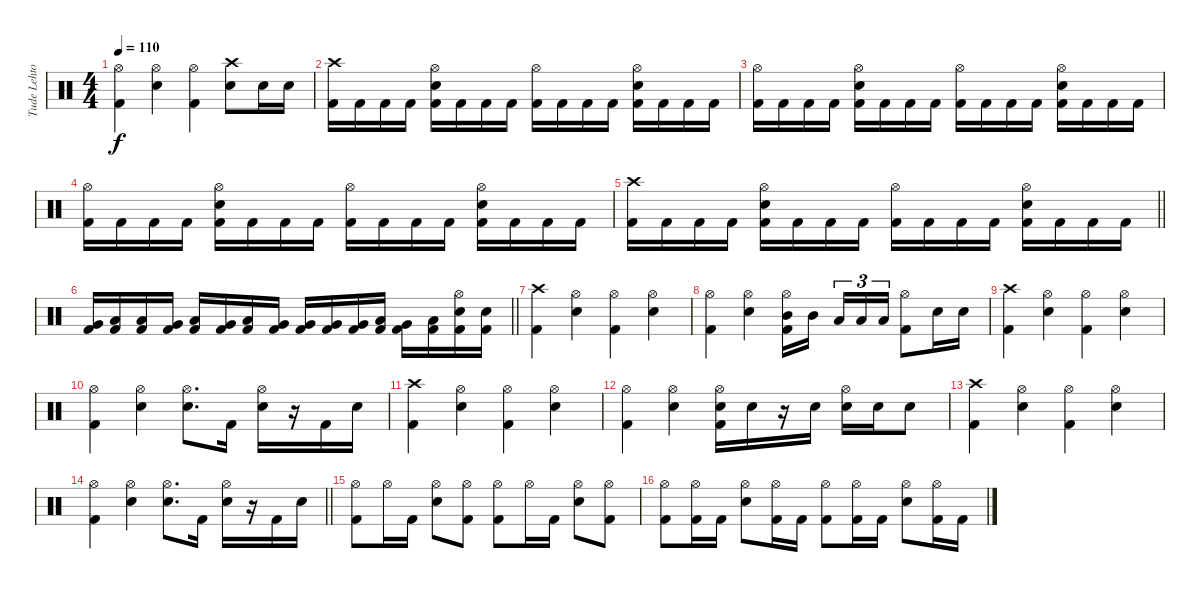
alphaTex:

\track ("Tude Lehtonen" "Tude Lehto") {instrument percussion}
\staff {score}
\articulation defaults
\ts (4 4)
\tempo 110
\clef neutral
\ks c
("Hi-Hat (open)" "Kick (hit) 2").4{dy f} ("Hi-Hat (open)" "Snare (hit) 2").4 ("Hi-Hat (open)" "Kick (hit) 2").4 ("Crash high (hit)" "Snare (hit) 2").8 "Snare (hit) 2".16 "Snare (hit) 2".16 |
("Crash high (hit)" "Kick (hit) 2").16 "Kick (hit) 2".16 "Kick (hit) 2".16 "Kick (hit) 2".16 ("Hi-Hat (open)" "Snare (hit) 2" "Kick (hit) 2").16 "Kick (hit) 2".16 "Kick (hit) 2".16 "Kick (hit) 2".16 ("Hi-Hat (open)" "Kick (hit) 2").16 "Kick (hit) 2".16 "Kick (hit) 2".16 "Kick (hit) 2".16 ("Hi-Hat (open)" "Snare (hit) 2" "Kick (hit) 2").16 "Kick (hit) 2".16 "Kick (hit) 2".16 "Kick (hit) 2".16 |
("Hi-Hat (open)" "Kick (hit) 2").16 "Kick (hit) 2".16 "Kick (hit) 2".16 "Kick (hit) 2".16 ("Hi-Hat (open)" "Snare (hit) 2" "Kick (hit) 2").16 "Kick (hit) 2".16 "Kick (hit) 2".16 "Kick (hit) 2".16 ("Hi-Hat (open)" "Kick (hit) 2").16 "Kick (hit) 2".16 "Kick (hit) 2".16 "Kick (hit) 2".16 ("Hi-Hat (open)" "Snare (hit) 2" "Kick (hit) 2").16 "Kick (hit) 2".16 "Kick (hit) 2".16 "Kick (hit) 2".16 |
("Hi-Hat (open)" "Kick (hit) 2").16 "Kick (hit) 2".16 "Kick (hit) 2".16 "Kick (hit) 2".16 ("Hi-Hat (open)" "Snare (hit) 2" "Kick (hit) 2").16 "Kick (hit) 2".16 "Kick (hit) 2".16 "Kick (hit) 2".16 ("Hi-Hat (open)" "Kick (hit) 2").16 "Kick (hit) 2".16 "Kick (hit) 2".16 "Kick (hit) 2".16 ("Hi-Hat (open)" "Snare (hit) 2" "Kick (hit) 2").16 "Kick (hit) 2".16 "Kick (hit) 2".16 "Kick (hit) 2".16 |
\barLineRight lightlight
("Crash high (hit)" "Kick (hit) 2").16 "Kick (hit) 2".16 "Kick (hit) 2".16 "Kick (hit) 2".16 ("Hi-Hat (open)" "Snare (hit) 2" "Kick (hit) 2").16 "Kick (hit) 2".16 "Kick (hit) 2".16 "Kick (hit) 2".16 ("Hi-Hat (open)" "Kick (hit) 2").16 "Kick (hit) 2".16 "Kick (hit) 2".16 "Kick (hit) 2".16 ("Hi-Hat (open)" "Snare (hit) 2" "Kick (hit) 2").16 "Kick (hit) 2".16 "Kick (hit) 2".16 "Kick (hit) 2".16 |
\barLineRight lightlight
("Very Low Tom (hit)" "Kick (hit) 2").16 ("Low Tom (hit)" "Kick (hit) 2").16 ("Low Tom (hit)" "Kick (hit) 2").16 ("Very Low Tom (hit)" "Kick (hit) 2").16 ("Low Tom (hit)" "Kick (hit) 2").16 ("Very Low Tom (hit)" "Kick (hit) 2").16 ("Low Tom (hit)" "Kick (hit) 2").16 ("Very Low Tom (hit)" "Kick (hit) 2").16 ("Very Low Tom (hit)" "Kick (hit) 2").16 ("Very Low Tom (hit)" "Kick (hit) 2").16 ("Very Low Tom (hit)" "Kick (hit) 2").16 ("Low Tom (hit)" "Kick (hit) 2").16 ("Very Low Tom (hit)" "Kick (hit) 2").16 ("Low Tom (hit)" "Kick (hit) 2").16 ("Hi-Hat (open)" "Snare (hit) 2" "Kick (hit) 2").16 ("Snare (hit) 2" "Kick (hit) 2").16 |
\section ("" "")
("Crash high (hit)" "Kick (hit) 2").4 ("Hi-Hat (open)" "Snare (hit) 2").4 ("Hi-Hat (open)" "Kick (hit) 2").4 ("Hi-Hat (open)" "Snare (hit) 2").4 |
("Hi-Hat (open)" "Kick (hit) 2").4 ("Hi-Hat (open)" "Snare (hit) 2").4 ("Hi-Hat (open)" "Mid Tom (hit)" "Kick (hit) 2").16 "Mid Tom (hit)".16{beam splitsecondary} "Low Tom (hit)".16{tu (3 2)} "Low Tom (hit)".16{tu (3 2)} "Low Tom (hit)".16{tu (3 2)} ("Hi-Hat (open)" "Kick (hit) 2").8 "Snare (hit) 2".16 "Snare (hit) 2".16 |
("Crash high (hit)" "Kick (hit) 2").4 ("Hi-Hat (open)" "Snare (hit) 2").4 ("Hi-Hat (open)" "Kick (hit) 2").4 ("Hi-Hat (open)" "Snare (hit) 2").4 |
("Hi-Hat (open)" "Kick (hit) 2").4 ("Hi-Hat (open)" "Snare (hit) 2").4 ("Hi-Hat (open)" "Snare (hit) 2").8{d} "Kick (hit) 2".16 ("Hi-Hat (open)" "Snare (hit) 2").16 r.16 "Kick (hit) 2".16 "Snare (hit) 2".16 |
("Crash high (hit)" "Kick (hit) 2").4 ("Hi-Hat (open)" "Snare (hit) 2").4 ("Hi-Hat (open)" "Kick (hit) 2").4 ("Hi-Hat (open)" "Snare (hit) 2").4 |
("Hi-Hat (open)" "Kick (hit) 2").4 ("Hi-Hat (open)" "Snare (hit) 2").4 ("Hi-Hat (open)" "Snare (hit) 2" "Kick (hit) 2").16 "Snare (hit) 2".16 r.16 "Snare (hit) 2".16 ("Hi-Hat (open)" "Snare (hit) 2").16 "Snare (hit) 2".16 "Snare (hit) 2".8 |
("Crash high (hit)" "Kick (hit) 2").4 ("Hi-Hat (open)" "Snare (hit) 2").4 ("Hi-Hat (open)" "Kick (hit) 2").4 ("Hi-Hat (open)" "Snare (hit) 2").4 |
\barLineRight lightlight
("Hi-Hat (open)" "Kick (hit) 2").4 ("Hi-Hat (open)" "Snare (hit) 2").4 ("Hi-Hat (open)" "Snare (hit) 2").8{d} "Kick (hit) 2".16 ("Hi-Hat (open)" "Snare (hit) 2").16 r.16 "Kick (hit) 2".16 "Snare (hit) 2".16 |
\section ("" "")
("Hi-Hat (open)" "Kick (hit) 2").8 "Hi-Hat (open)".16 "Kick (hit) 2".16 ("Hi-Hat (open)" "Snare (hit) 2").8 ("Hi-Hat (open)" "Kick (hit) 2").8 ("Hi-Hat (open)" "Kick (hit) 2").8 "Hi-Hat (open)".16 "Kick (hit) 2".16 ("Hi-Hat (open)" "Snare (hit) 2").8 ("Hi-Hat (open)" "Kick (hit) 2").8 |
("Hi-Hat (open)" "Kick (hit) 2").8 ("Hi-Hat (open)" "Kick (hit) 2").16 "Kick (hit) 2".16 ("Hi-Hat (open)" "Snare (hit) 2").8 ("Hi-Hat (open)" "Kick (hit) 2").16 "Kick (hit) 2".16 ("Hi-Hat (open)" "Kick (hit) 2").8 ("Hi-Hat (open)" "Kick (hit) 2").16 "Kick (hit) 2".16 ("Hi-Hat (open)" "Snare (hit) 2").8 ("Hi-Hat (open)" "Kick (hit) 2").16 "Kick (hit) 2".16
